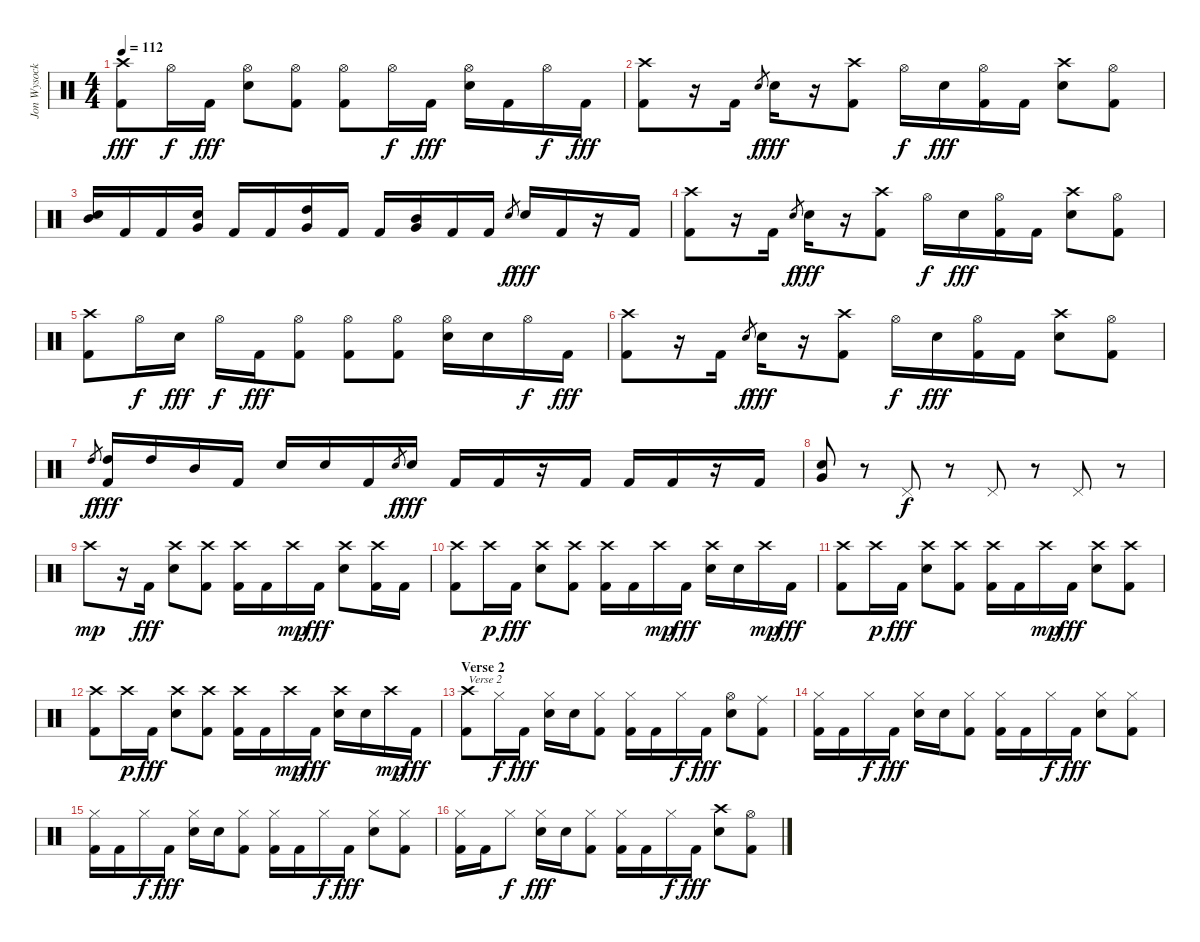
\track ("Jon Wysocki" "Jon Wysock") {instrument percussion}
\staff {score}
\articulation defaults
\ts (4 4)
\tempo 112
\clef neutral
\ks c
("Crash high (hit)" "Kick (hit) 2").8{dy fff} "Hi-Hat (open)".16{dy f} "Kick (hit) 2".16{dy fff} ("Hi-Hat (open)" "Electric Snare (hit)").8 ("Hi-Hat (open)" "Kick (hit) 2").8 ("Hi-Hat (open)" "Kick (hit) 2").8 "Hi-Hat (open)".16{dy f} "Kick (hit) 2".16{dy fff} ("Hi-Hat (open)" "Electric Snare (hit)").16 "Kick (hit) 2".16 "Hi-Hat (open)".16{dy f} "Kick (hit) 2".16{dy fff} |
("Crash high (hit)" "Kick (hit) 2").8 r.16 "Kick (hit) 2".16 "Electric Snare (hit)".8{gr dy f} "Electric Snare (hit)".16{dy fff} r.16 ("Crash high (hit)" "Kick (hit) 2").8 "Hi-Hat (open)".16{dy f} "Electric Snare (hit)".16{dy fff} ("Hi-Hat (open)" "Kick (hit) 2").16 "Kick (hit) 2".16 ("Crash high (hit)" "Electric Snare (hit)").8 ("Hi-Hat (open)" "Kick (hit) 2").8 |
("Mid Tom (hit)" "Electric Snare (hit)").16 "Kick (hit) 2".16 "Kick (hit) 2".16 ("Electric Snare (hit)" "Very Low Tom (hit)").16 "Kick (hit) 2".16 "Kick (hit) 2".16 ("High Tom (hit)" "Very Low Tom (hit)").16 "Kick (hit) 2".16 "Kick (hit) 2".16 ("Mid Tom (hit)" "Very Low Tom (hit)").16 "Kick (hit) 2".16 "Kick (hit) 2".16 "Electric Snare (hit)".8{gr dy f} "Electric Snare (hit)".16{dy fff} "Kick (hit) 2".16 r.16 "Kick (hit) 2".16 |
("Crash high (hit)" "Kick (hit) 2").8 r.16 "Kick (hit) 2".16 "Electric Snare (hit)".8{gr dy f} "Electric Snare (hit)".16{dy fff} r.16 ("Crash high (hit)" "Kick (hit) 2").8 "Hi-Hat (open)".16{dy f} "Electric Snare (hit)".16{dy fff} ("Hi-Hat (open)" "Kick (hit) 2").16 "Kick (hit) 2".16 ("Crash high (hit)" "Electric Snare (hit)").8 ("Hi-Hat (open)" "Kick (hit) 2").8 |
("Crash high (hit)" "Kick (hit) 2").8 "Hi-Hat (open)".16{dy f} "Electric Snare (hit)".16{dy fff} "Hi-Hat (open)".16{dy f} "Kick (hit) 2".16{dy fff} ("Hi-Hat (open)" "Kick (hit) 2").8 ("Hi-Hat (open)" "Kick (hit) 2").8 ("Hi-Hat (open)" "Kick (hit) 2").8 ("Hi-Hat (open)" "Electric Snare (hit)").16 "Electric Snare (hit)".16 "Hi-Hat (open)".16{dy f} "Kick (hit) 2".16{dy fff} |
("Crash high (hit)" "Kick (hit) 2").8 r.16 "Kick (hit) 2".16 "Electric Snare (hit)".8{gr dy f} "Electric Snare (hit)".16{dy fff} r.16 ("Crash high (hit)" "Kick (hit) 2").8 "Hi-Hat (open)".16{dy f} "Electric Snare (hit)".16{dy fff} ("Hi-Hat (open)" "Kick (hit) 2").16 "Kick (hit) 2".16 ("Crash high (hit)" "Electric Snare (hit)").8 ("Hi-Hat (open)" "Kick (hit) 2").8 |
"High Tom (hit)".8{gr dy f} ("High Tom (hit)" "Kick (hit) 2").16{dy fff} "High Tom (hit)".16 "Mid Tom (hit)".16 "Kick (hit) 2".16 "Electric Snare (hit)".16 "Electric Snare (hit)".16 "Kick (hit) 2".16 "Electric Snare (hit)".8{gr dy f} "Electric Snare (hit)".16{dy fff} "Kick (hit) 2".16 "Kick (hit) 2".16 r.16 "Kick (hit) 2".16 "Kick (hit) 2".16 "Kick (hit) 2".16 r.16 "Kick (hit) 2".16 |
("Electric Snare (hit)" "Very Low Tom (hit)").8 r.8 "Pedal Hi-Hat (hit)".8{dy f} r.8 "Pedal Hi-Hat (hit)".8 r.8 "Pedal Hi-Hat (hit)".8 r.8 |
"Crash high (hit)".8{dy mp} r.16 "Kick (hit) 2".16{dy fff} ("Crash high (hit)" "Electric Snare (hit)").8 ("Crash high (hit)" "Kick (hit) 2").8 ("Crash high (hit)" "Kick (hit) 2").16 "Kick (hit) 2".16 "Crash high (hit)".16{dy mp} "Kick (hit) 2".16{dy fff} ("Crash high (hit)" "Electric Snare (hit)").8 ("Crash high (hit)" "Kick (hit) 2").16 "Kick (hit) 2".16 |
("Crash high (hit)" "Kick (hit) 2").8 "Crash high (hit)".16{dy p} "Kick (hit) 2".16{dy fff} ("Crash high (hit)" "Electric Snare (hit)").8 ("Crash high (hit)" "Kick (hit) 2").8 ("Crash high (hit)" "Kick (hit) 2").16 "Kick (hit) 2".16 "Crash high (hit)".16{dy mp} "Kick (hit) 2".16{dy fff} ("Crash high (hit)" "Electric Snare (hit)").16 "Electric Snare (hit)".16 "Crash high (hit)".16{dy mp} "Kick (hit) 2".16{dy fff} |
("Crash high (hit)" "Kick (hit) 2").8 "Crash high (hit)".16{dy p} "Kick (hit) 2".16{dy fff} ("Crash high (hit)" "Electric Snare (hit)").8 ("Crash high (hit)" "Kick (hit) 2").8 ("Crash high (hit)" "Kick (hit) 2").16 "Kick (hit) 2".16 "Crash high (hit)".16{dy mp} "Kick (hit) 2".16{dy fff} ("Crash high (hit)" "Electric Snare (hit)").8 ("Crash high (hit)" "Kick (hit) 2").8 |
("Crash high (hit)" "Kick (hit) 2").8 "Crash high (hit)".16{dy p} "Kick (hit) 2".16{dy fff} ("Crash high (hit)" "Electric Snare (hit)").8 ("Crash high (hit)" "Kick (hit) 2").8 ("Crash high (hit)" "Kick (hit) 2").16 "Kick (hit) 2".16 "Crash high (hit)".16{dy mp} "Kick (hit) 2".16{dy fff} ("Crash high (hit)" "Electric Snare (hit)").16 "Electric Snare (hit)".16 "Crash high (hit)".16{dy mp} "Kick (hit) 2".16{dy fff} |
\section ("" "Verse 2")
("Crash high (hit)" "Kick (hit) 2").8{txt "Verse 2"} "Hi-Hat (closed)".16{dy f} "Kick (hit) 2".16{dy fff} ("Hi-Hat (closed)" "Electric Snare (hit)").16 "Electric Snare (hit)".16 ("Hi-Hat (closed)" "Kick (hit) 2").8 ("Hi-Hat (closed)" "Kick (hit) 2").16 "Kick (hit) 2".16 "Hi-Hat (closed)".16{dy f} "Kick (hit) 2".16{dy fff} ("Hi-Hat (open)" "Electric Snare (hit)").8 ("Ride (middle)" "Kick (hit) 2").8 |
("Hi-Hat (closed)" "Kick (hit) 2").16 "Kick (hit) 2".16 "Hi-Hat (closed)".16{dy f} "Kick (hit) 2".16{dy fff} ("Hi-Hat (closed)" "Electric Snare (hit)").16 "Electric Snare (hit)".16 ("Hi-Hat (closed)" "Kick (hit) 2").8 ("Hi-Hat (closed)" "Kick (hit) 2").16 "Kick (hit) 2".16 "Hi-Hat (closed)".16{dy f} "Kick (hit) 2".16{dy fff} ("Hi-Hat (closed)" "Electric Snare (hit)").8 ("Hi-Hat (closed)" "Kick (hit) 2").8 |
("Hi-Hat (closed)" "Kick (hit) 2").16 "Kick (hit) 2".16 "Hi-Hat (closed)".16{dy f} "Kick (hit) 2".16{dy fff} ("Hi-Hat (closed)" "Electric Snare (hit)").16 "Electric Snare (hit)".16 ("Hi-Hat (closed)" "Kick (hit) 2").8 ("Hi-Hat (closed)" "Kick (hit) 2").16 "Kick (hit) 2".16 "Hi-Hat (closed)".16{dy f} "Kick (hit) 2".16{dy fff} ("Hi-Hat (closed)" "Electric Snare (hit)").8 ("Hi-Hat (closed)" "Kick (hit) 2").8 |
("Hi-Hat (closed)" "Kick (hit) 2").16 "Kick (hit) 2".16 "Hi-Hat (closed)".8{dy f} ("Hi-Hat (closed)" "Electric Snare (hit)").16{dy fff} "Electric Snare (hit)".16 ("Hi-Hat (closed)" "Kick (hit) 2").8 ("Hi-Hat (closed)" "Kick (hit) 2").16 "Kick (hit) 2".16 "Hi-Hat (closed)".16{dy f} "Kick (hit) 2".16{dy fff} ("Crash high (hit)" "Electric Snare (hit)").8 ("Hi-Hat (open)" "Kick (hit) 2").8
